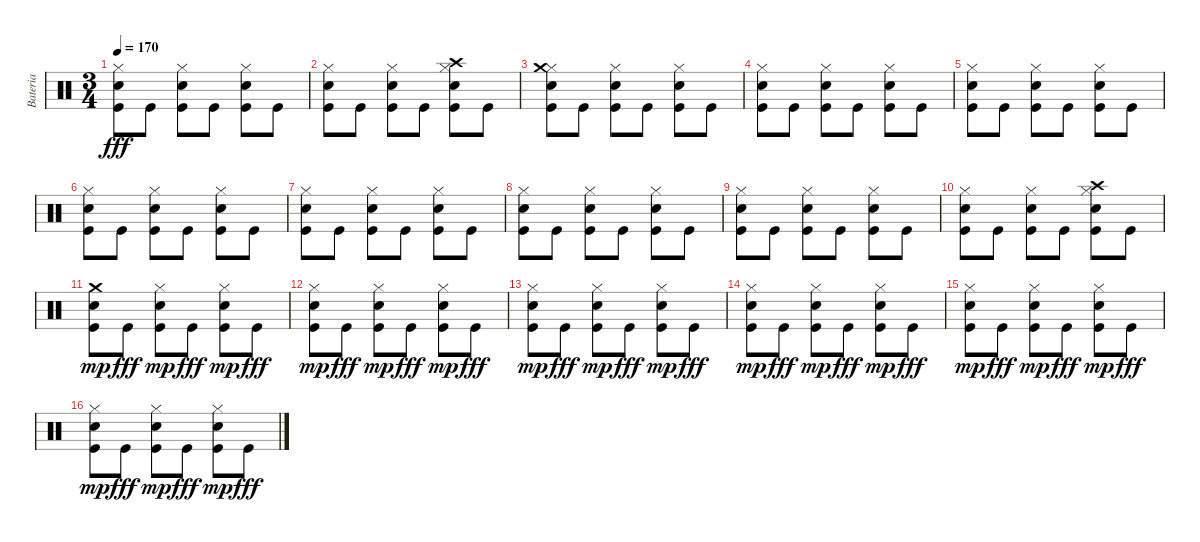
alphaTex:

\track ("Bateria" "Bateria") {instrument percussion}
\staff {score}
\articulation defaults
\ts (3 4)
\tempo 170
\clef neutral
\ks c
("Kick (hit)" "Snare (hit) 2" "Hi-Hat (closed)").8{dy fff} "Kick (hit)".8 ("Kick (hit)" "Snare (hit) 2" "Hi-Hat (closed)").8 "Kick (hit)".8 ("Kick (hit)" "Snare (hit) 2" "Hi-Hat (closed)").8 "Kick (hit)".8 |
("Kick (hit)" "Snare (hit) 2" "Hi-Hat (closed)").8 "Kick (hit)".8 ("Kick (hit)" "Snare (hit) 2" "Hi-Hat (closed)").8 "Kick (hit)".8 ("Kick (hit)" "Snare (hit) 2" "Hi-Hat (closed)" "Crash high (hit)").8 "Kick (hit)".8 |
("Kick (hit)" "Snare (hit) 2" "Hi-Hat (closed)" "Crash medium (hit)").8 "Kick (hit)".8 ("Kick (hit)" "Snare (hit) 2" "Hi-Hat (closed)").8 "Kick (hit)".8 ("Kick (hit)" "Snare (hit) 2" "Hi-Hat (closed)").8 "Kick (hit)".8 |
("Kick (hit)" "Snare (hit) 2" "Hi-Hat (closed)").8 "Kick (hit)".8 ("Kick (hit)" "Snare (hit) 2" "Hi-Hat (closed)").8 "Kick (hit)".8 ("Kick (hit)" "Snare (hit) 2" "Hi-Hat (closed)").8 "Kick (hit)".8 |
("Kick (hit)" "Snare (hit) 2" "Hi-Hat (closed)").8 "Kick (hit)".8 ("Kick (hit)" "Snare (hit) 2" "Hi-Hat (closed)").8 "Kick (hit)".8 ("Kick (hit)" "Snare (hit) 2" "Hi-Hat (closed)").8 "Kick (hit)".8 |
("Kick (hit)" "Snare (hit) 2" "Hi-Hat (closed)").8 "Kick (hit)".8 ("Kick (hit)" "Snare (hit) 2" "Hi-Hat (closed)").8 "Kick (hit)".8 ("Kick (hit)" "Snare (hit) 2" "Hi-Hat (closed)").8 "Kick (hit)".8 |
("Kick (hit)" "Snare (hit) 2" "Hi-Hat (closed)").8 "Kick (hit)".8 ("Kick (hit)" "Snare (hit) 2" "Hi-Hat (closed)").8 "Kick (hit)".8 ("Kick (hit)" "Snare (hit) 2" "Hi-Hat (closed)").8 "Kick (hit)".8 |
("Kick (hit)" "Snare (hit) 2" "Hi-Hat (closed)").8 "Kick (hit)".8 ("Kick (hit)" "Snare (hit) 2" "Hi-Hat (closed)").8 "Kick (hit)".8 ("Kick (hit)" "Snare (hit) 2" "Hi-Hat (closed)").8 "Kick (hit)".8 |
("Kick (hit)" "Snare (hit) 2" "Hi-Hat (closed)").8 "Kick (hit)".8 ("Kick (hit)" "Snare (hit) 2" "Hi-Hat (closed)").8 "Kick (hit)".8 ("Kick (hit)" "Snare (hit) 2" "Hi-Hat (closed)").8 "Kick (hit)".8 |
("Kick (hit)" "Snare (hit) 2" "Hi-Hat (closed)").8 "Kick (hit)".8 ("Kick (hit)" "Snare (hit) 2" "Hi-Hat (closed)").8 "Kick (hit)".8 ("Kick (hit)" "Snare (hit) 2" "Hi-Hat (closed)" "Crash high (hit)").8 "Kick (hit)".8 |
("Kick (hit)" "Crash medium (hit)" "Snare (hit) 2").8{dy mp volume 12} "Kick (hit)".8{dy fff} ("Kick (hit)" "Snare (hit) 2" "Hi-Hat (closed)").8{dy mp} "Kick (hit)".8{dy fff} ("Kick (hit)" "Hi-Hat (closed)" "Snare (hit) 2").8{dy mp} "Kick (hit)".8{dy fff} |
("Kick (hit)" "Hi-Hat (closed)" "Snare (hit) 2").8{dy mp} "Kick (hit)".8{dy fff} ("Kick (hit)" "Hi-Hat (closed)" "Snare (hit) 2").8{dy mp} "Kick (hit)".8{dy fff} ("Kick (hit)" "Hi-Hat (closed)" "Snare (hit) 2").8{dy mp} "Kick (hit)".8{dy fff} |
("Kick (hit)" "Hi-Hat (closed)" "Snare (hit) 2").8{dy mp} "Kick (hit)".8{dy fff} ("Kick (hit)" "Hi-Hat (closed)" "Snare (hit) 2").8{dy mp} "Kick (hit)".8{dy fff} ("Kick (hit)" "Hi-Hat (closed)" "Snare (hit) 2").8{dy mp} "Kick (hit)".8{dy fff} |
("Kick (hit)" "Hi-Hat (closed)" "Snare (hit) 2").8{dy mp} "Kick (hit)".8{dy fff} ("Kick (hit)" "Hi-Hat (closed)" "Snare (hit) 2").8{dy mp} "Kick (hit)".8{dy fff} ("Kick (hit)" "Hi-Hat (closed)" "Snare (hit) 2").8{dy mp} "Kick (hit)".8{dy fff} |
("Kick (hit)" "Hi-Hat (closed)" "Snare (hit) 2").8{dy mp} "Kick (hit)".8{dy fff} ("Kick (hit)" "Hi-Hat (closed)" "Snare (hit) 2").8{dy mp} "Kick (hit)".8{dy fff} ("Kick (hit)" "Hi-Hat (closed)" "Snare (hit) 2").8{dy mp} "Kick (hit)".8{dy fff} |
("Kick (hit)" "Hi-Hat (closed)" "Snare (hit) 2").8{dy mp} "Kick (hit)".8{dy fff} ("Kick (hit)" "Hi-Hat (closed)" "Snare (hit) 2").8{dy mp} "Kick (hit)".8{dy fff} ("Kick (hit)" "Hi-Hat (closed)" "Snare (hit) 2").8{dy mp} "Kick (hit)".8{dy fff}
